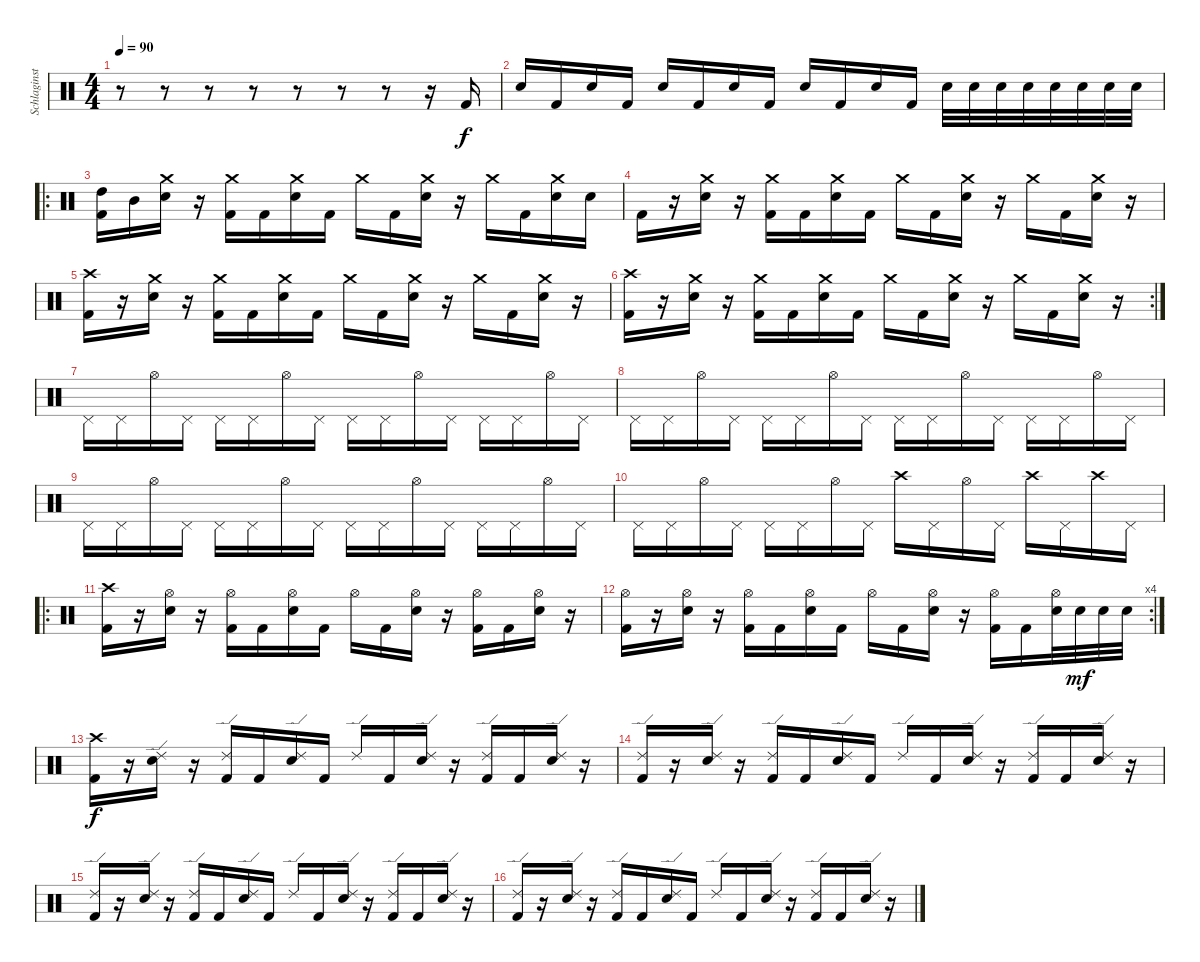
\track ("Schlaginstrumente - Auswahl" "Schlaginst") {instrument percussion}
\staff {score}
\articulation defaults
\ts (4 4)
\tempo 90
\clef neutral
\ks c
r.8{dy f} r.8 r.8 r.8 r.8 r.8 r.8 r.16 "Kick (hit) 2".16 |
"Electric Snare (hit)".16 "Kick (hit) 2".16 "Electric Snare (hit)".16 "Kick (hit) 2".16 "Electric Snare (hit)".16 "Kick (hit) 2".16 "Electric Snare (hit)".16 "Kick (hit) 2".16 "Electric Snare (hit)".16 "Kick (hit) 2".16 "Electric Snare (hit)".16 "Kick (hit) 2".16 "Electric Snare (hit)".32 "Electric Snare (hit)".32 "Electric Snare (hit)".32 "Electric Snare (hit)".32 "Electric Snare (hit)".32 "Electric Snare (hit)".32 "Electric Snare (hit)".32 "Electric Snare (hit)".32 |
\ro
("High Tom (hit)" "Kick (hit) 2").16 "Mid Tom (hit)".16 ("Crash medium (hit)" "Electric Snare (hit)").16 r.16 ("Crash medium (hit)" "Kick (hit) 2").16 "Kick (hit) 2".16 ("Crash medium (hit)" "Electric Snare (hit)").16 "Kick (hit) 2".16 "Crash medium (hit)".16 "Kick (hit) 2".16 ("Crash medium (hit)" "Electric Snare (hit)").16 r.16 "Crash medium (hit)".16 "Kick (hit) 2".16 ("Crash medium (hit)" "Electric Snare (hit)").16 "Electric Snare (hit)".16 |
"Kick (hit) 2".16 r.16 ("Crash medium (hit)" "Electric Snare (hit)").16 r.16 ("Crash medium (hit)" "Kick (hit) 2").16 "Kick (hit) 2".16 ("Crash medium (hit)" "Electric Snare (hit)").16 "Kick (hit) 2".16 "Crash medium (hit)".16 "Kick (hit) 2".16 ("Crash medium (hit)" "Electric Snare (hit)").16 r.16 "Crash medium (hit)".16 "Kick (hit) 2".16 ("Crash medium (hit)" "Electric Snare (hit)").16 r.16 |
("Crash high (hit)" "Kick (hit) 2").16 r.16 ("Crash medium (hit)" "Electric Snare (hit)").16 r.16 ("Crash medium (hit)" "Kick (hit) 2").16 "Kick (hit) 2".16 ("Crash medium (hit)" "Electric Snare (hit)").16 "Kick (hit) 2".16 "Crash medium (hit)".16 "Kick (hit) 2".16 ("Crash medium (hit)" "Electric Snare (hit)").16 r.16 "Crash medium (hit)".16 "Kick (hit) 2".16 ("Crash medium (hit)" "Electric Snare (hit)").16 r.16 |
\rc 2
("Crash high (hit)" "Kick (hit) 2").16 r.16 ("Crash medium (hit)" "Electric Snare (hit)").16 r.16 ("Crash medium (hit)" "Kick (hit) 2").16 "Kick (hit) 2".16 ("Crash medium (hit)" "Electric Snare (hit)").16 "Kick (hit) 2".16 "Crash medium (hit)".16 "Kick (hit) 2".16 ("Crash medium (hit)" "Electric Snare (hit)").16 r.16 "Crash medium (hit)".16 "Kick (hit) 2".16 ("Crash medium (hit)" "Electric Snare (hit)").16 r.16 |
"Pedal Hi-Hat (hit)".16 "Pedal Hi-Hat (hit)".16 "Hi-Hat (open)".16 "Pedal Hi-Hat (hit)".16 "Pedal Hi-Hat (hit)".16 "Pedal Hi-Hat (hit)".16 "Hi-Hat (open)".16 "Pedal Hi-Hat (hit)".16 "Pedal Hi-Hat (hit)".16 "Pedal Hi-Hat (hit)".16 "Hi-Hat (open)".16 "Pedal Hi-Hat (hit)".16 "Pedal Hi-Hat (hit)".16 "Pedal Hi-Hat (hit)".16 "Hi-Hat (open)".16 "Pedal Hi-Hat (hit)".16 |
"Pedal Hi-Hat (hit)".16 "Pedal Hi-Hat (hit)".16 "Hi-Hat (open)".16 "Pedal Hi-Hat (hit)".16 "Pedal Hi-Hat (hit)".16 "Pedal Hi-Hat (hit)".16 "Hi-Hat (open)".16 "Pedal Hi-Hat (hit)".16 "Pedal Hi-Hat (hit)".16 "Pedal Hi-Hat (hit)".16 "Hi-Hat (open)".16 "Pedal Hi-Hat (hit)".16 "Pedal Hi-Hat (hit)".16 "Pedal Hi-Hat (hit)".16 "Hi-Hat (open)".16 "Pedal Hi-Hat (hit)".16 |
"Pedal Hi-Hat (hit)".16 "Pedal Hi-Hat (hit)".16 "Hi-Hat (open)".16 "Pedal Hi-Hat (hit)".16 "Pedal Hi-Hat (hit)".16 "Pedal Hi-Hat (hit)".16 "Hi-Hat (open)".16 "Pedal Hi-Hat (hit)".16 "Pedal Hi-Hat (hit)".16 "Pedal Hi-Hat (hit)".16 "Hi-Hat (open)".16 "Pedal Hi-Hat (hit)".16 "Pedal Hi-Hat (hit)".16 "Pedal Hi-Hat (hit)".16 "Hi-Hat (open)".16 "Pedal Hi-Hat (hit)".16 |
"Pedal Hi-Hat (hit)".16 "Pedal Hi-Hat (hit)".16 "Hi-Hat (open)".16 "Pedal Hi-Hat (hit)".16 "Pedal Hi-Hat (hit)".16 "Pedal Hi-Hat (hit)".16 "Hi-Hat (open)".16 "Pedal Hi-Hat (hit)".16 "Crash high (hit)".16 "Pedal Hi-Hat (hit)".16 "Hi-Hat (open)".16 "Pedal Hi-Hat (hit)".16 "Crash high (hit)".16 "Pedal Hi-Hat (hit)".16 "Crash high (hit)".16 "Pedal Hi-Hat (hit)".16 |
\ro
("Crash high (hit)" "Kick (hit) 2").16 r.16 ("Hi-Hat (open)" "Electric Snare (hit)").16 r.16 ("Hi-Hat (open)" "Kick (hit) 2").16 "Kick (hit) 2".16 ("Hi-Hat (open)" "Electric Snare (hit)").16 "Kick (hit) 2".16 "Hi-Hat (open)".16 "Kick (hit) 2".16 ("Hi-Hat (open)" "Electric Snare (hit)").16 r.16 ("Hi-Hat (open)" "Kick (hit) 2").16 "Kick (hit) 2".16 ("Hi-Hat (open)" "Electric Snare (hit)").16 r.16 |
\rc 4
("Hi-Hat (open)" "Kick (hit) 2").16 r.16 ("Hi-Hat (open)" "Electric Snare (hit)").16 r.16 ("Hi-Hat (open)" "Kick (hit) 2").16 "Kick (hit) 2".16 ("Hi-Hat (open)" "Electric Snare (hit)").16 "Kick (hit) 2".16 "Hi-Hat (open)".16 "Kick (hit) 2".16 ("Hi-Hat (open)" "Electric Snare (hit)").16 r.16 ("Hi-Hat (open)" "Kick (hit) 2").16 "Kick (hit) 2".16 ("Hi-Hat (open)" "Electric Snare (hit)").32 "Electric Snare (hit)".32{dy mf} "Electric Snare (hit)".32 "Electric Snare (hit)".32 |
("Crash high (hit)" "Kick (hit) 2").16{dy f} r.16 ("Ride (edge) 2" "Electric Snare (hit)").16 r.16 ("Ride (edge) 2" "Kick (hit) 2").16 "Kick (hit) 2".16 ("Ride (edge) 2" "Electric Snare (hit)").16 "Kick (hit) 2".16 "Ride (edge) 2".16 "Kick (hit) 2".16 ("Ride (edge) 2" "Electric Snare (hit)").16 r.16 ("Ride (edge) 2" "Kick (hit) 2").16 "Kick (hit) 2".16 ("Ride (edge) 2" "Electric Snare (hit)").16 r.16 |
("Ride (edge) 2" "Kick (hit) 2").16 r.16 ("Ride (edge) 2" "Electric Snare (hit)").16 r.16 ("Ride (edge) 2" "Kick (hit) 2").16 "Kick (hit) 2".16 ("Ride (edge) 2" "Electric Snare (hit)").16 "Kick (hit) 2".16 "Ride (edge) 2".16 "Kick (hit) 2".16 ("Ride (edge) 2" "Electric Snare (hit)").16 r.16 ("Ride (edge) 2" "Kick (hit) 2").16 "Kick (hit) 2".16 ("Ride (edge) 2" "Electric Snare (hit)").16 r.16 |
("Ride (edge) 2" "Kick (hit) 2").16 r.16 ("Ride (edge) 2" "Electric Snare (hit)").16 r.16 ("Ride (edge) 2" "Kick (hit) 2").16 "Kick (hit) 2".16 ("Ride (edge) 2" "Electric Snare (hit)").16 "Kick (hit) 2".16 "Ride (edge) 2".16 "Kick (hit) 2".16 ("Ride (edge) 2" "Electric Snare (hit)").16 r.16 ("Ride (edge) 2" "Kick (hit) 2").16 "Kick (hit) 2".16 ("Ride (edge) 2" "Electric Snare (hit)").16 r.16 |
("Ride (edge) 2" "Kick (hit) 2").16 r.16 ("Ride (edge) 2" "Electric Snare (hit)").16 r.16 ("Ride (edge) 2" "Kick (hit) 2").16 "Kick (hit) 2".16 ("Ride (edge) 2" "Electric Snare (hit)").16 "Kick (hit) 2".16 "Ride (edge) 2".16 "Kick (hit) 2".16 ("Ride (edge) 2" "Electric Snare (hit)").16 r.16 ("Ride (edge) 2" "Kick (hit) 2").16 "Kick (hit) 2".16 ("Ride (edge) 2" "Electric Snare (hit)").16 r.16
